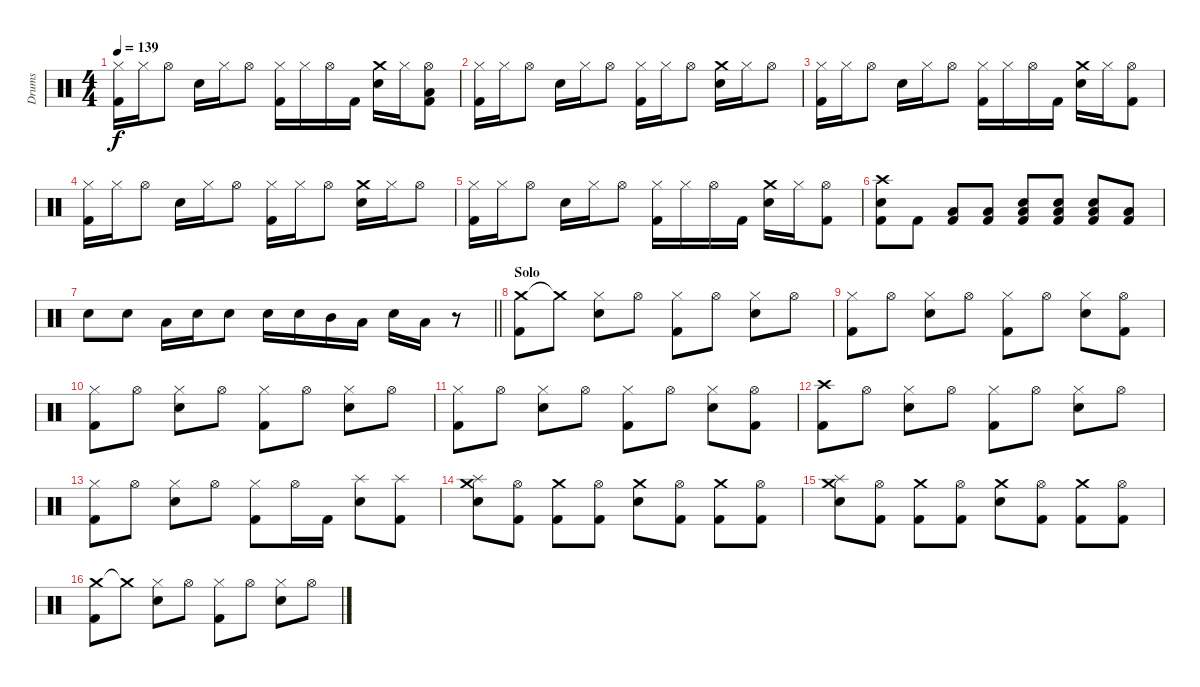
\track ("Drums" "Drums") {instrument percussion}
\staff {score}
\articulation defaults
\ts (4 4)
\tempo 139
\clef neutral
\ks c
("Hi-Hat (closed)" "Kick (hit) 2").16{dy f} "Hi-Hat (closed)".16 "Hi-Hat (open)".8 "Electric Snare (hit)".16 "Hi-Hat (closed)".16 "Hi-Hat (open)".8 ("Hi-Hat (closed)" "Kick (hit) 2").16 "Hi-Hat (closed)".16 "Hi-Hat (open)".16 "Kick (hit) 2".16 ("Crash medium (hit)" "Electric Snare (hit)").16 "Hi-Hat (closed)".16 ("Hi-Hat (open)" "Low Tom (hit)" "Kick (hit) 2").8 |
("Hi-Hat (closed)" "Kick (hit) 2").16 "Hi-Hat (closed)".16 "Hi-Hat (open)".8 "Electric Snare (hit)".16 "Hi-Hat (closed)".16 "Hi-Hat (open)".8 ("Hi-Hat (closed)" "Kick (hit) 2").16 "Hi-Hat (closed)".16 "Hi-Hat (open)".8 ("Crash medium (hit)" "Electric Snare (hit)").16 "Hi-Hat (closed)".16 "Hi-Hat (open)".8 |
("Hi-Hat (closed)" "Kick (hit) 2").16 "Hi-Hat (closed)".16 "Hi-Hat (open)".8 "Electric Snare (hit)".16 "Hi-Hat (closed)".16 "Hi-Hat (open)".8 ("Hi-Hat (closed)" "Kick (hit) 2").16 "Hi-Hat (closed)".16 "Hi-Hat (open)".16 "Kick (hit) 2".16 ("Crash medium (hit)" "Electric Snare (hit)").16 "Hi-Hat (closed)".16 ("Hi-Hat (open)" "Kick (hit) 2").8 |
("Hi-Hat (closed)" "Kick (hit) 2").16 "Hi-Hat (closed)".16 "Hi-Hat (open)".8 "Electric Snare (hit)".16 "Hi-Hat (closed)".16 "Hi-Hat (open)".8 ("Hi-Hat (closed)" "Kick (hit) 2").16 "Hi-Hat (closed)".16 "Hi-Hat (open)".8 ("Crash medium (hit)" "Electric Snare (hit)").16 "Hi-Hat (closed)".16 "Hi-Hat (open)".8 |
("Hi-Hat (closed)" "Kick (hit) 2").16 "Hi-Hat (closed)".16 "Hi-Hat (open)".8 "Electric Snare (hit)".16 "Hi-Hat (closed)".16 "Hi-Hat (open)".8 ("Hi-Hat (closed)" "Kick (hit) 2").16 "Hi-Hat (closed)".16 "Hi-Hat (open)".16 "Kick (hit) 2".16 ("Crash medium (hit)" "Electric Snare (hit)").16 "Hi-Hat (closed)".16 ("Hi-Hat (open)" "Kick (hit) 2").8 |
("Crash high (hit)" "Electric Snare (hit)" "Kick (hit) 2").8 "Kick (hit) 2".8 ("Low Tom (hit)" "Kick (hit) 2").8 ("Low Tom (hit)" "Kick (hit) 2").8 ("Electric Snare (hit)" "Low Tom (hit)" "Kick (hit) 2").8 ("Electric Snare (hit)" "Low Tom (hit)" "Kick (hit) 2").8 ("Electric Snare (hit)" "Low Tom (hit)" "Kick (hit) 2").8 ("Low Tom (hit)" "Kick (hit) 2").8 |
\barLineRight lightlight "Electric Snare (hit)".8 "Electric Snare (hit)".8 "Low Tom (hit)".16 "Electric Snare (hit)".16 "Electric Snare (hit)".8 "Electric Snare (hit)".16 "Electric Snare (hit)".16 "Mid Tom (hit)".16 "Low Tom (hit)".16 "Electric Snare (hit)".16 "Low Tom (hit)".16
r.8 |
\section ("" "Solo")
("Crash medium (hit)" "Kick (hit) 2").8 "Crash medium (hit)"{t}.8 ("Hi-Hat (closed)" "Electric Snare (hit)").8 "Hi-Hat (open)".8 ("Hi-Hat (closed)" "Kick (hit) 2").8 "Hi-Hat (open)".8 ("Hi-Hat (closed)" "Electric Snare (hit)").8 "Hi-Hat (open)".8 |
("Hi-Hat (closed)" "Kick (hit) 2").8 "Hi-Hat (open)".8 ("Hi-Hat (closed)" "Electric Snare (hit)").8 "Hi-Hat (open)".8 ("Hi-Hat (closed)" "Kick (hit) 2").8 "Hi-Hat (open)".8 ("Hi-Hat (closed)" "Electric Snare (hit)").8 ("Hi-Hat (open)" "Kick (hit) 2").8 |
("Hi-Hat (closed)" "Kick (hit) 2").8 "Hi-Hat (open)".8 ("Hi-Hat (closed)" "Electric Snare (hit)").8 "Hi-Hat (open)".8 ("Hi-Hat (closed)" "Kick (hit) 2").8 "Hi-Hat (open)".8 ("Hi-Hat (closed)" "Electric Snare (hit)").8 "Hi-Hat (open)".8 |
("Hi-Hat (closed)" "Kick (hit) 2").8 "Hi-Hat (open)".8 ("Hi-Hat (closed)" "Electric Snare (hit)").8 "Hi-Hat (open)".8 ("Hi-Hat (closed)" "Kick (hit) 2").8 "Hi-Hat (open)".8 ("Hi-Hat (closed)" "Electric Snare (hit)").8 ("Hi-Hat (open)" "Kick (hit) 2").8 |
("Crash high (hit)" "Kick (hit) 2").8 "Hi-Hat (open)".8 ("Hi-Hat (closed)" "Electric Snare (hit)").8 "Hi-Hat (open)".8 ("Hi-Hat (closed)" "Kick (hit) 2").8 "Hi-Hat (open)".8 ("Hi-Hat (closed)" "Electric Snare (hit)").8 "Hi-Hat (open)".8 |
("Hi-Hat (closed)" "Kick (hit) 2").8 "Hi-Hat (open)".8 ("Hi-Hat (closed)" "Electric Snare (hit)").8 "Hi-Hat (open)".8 ("Hi-Hat (closed)" "Kick (hit) 2").8 "Hi-Hat (open)".16 "Kick (hit) 2".16 ("Splash (hit)" "Electric Snare (hit)").8 ("Splash (hit)" "Kick (hit) 2").8 |
("Splash (hit)" "Crash medium (hit)" "Electric Snare (hit)").8 ("Hi-Hat (open)" "Kick (hit) 2").8 ("Crash medium (hit)" "Kick (hit) 2").8 ("Hi-Hat (open)" "Kick (hit) 2").8 ("Crash medium (hit)" "Electric Snare (hit)").8 ("Hi-Hat (open)" "Kick (hit) 2").8 ("Crash medium (hit)" "Kick (hit) 2").8 ("Hi-Hat (open)" "Kick (hit) 2").8 |
("Splash (hit)" "Crash medium (hit)" "Electric Snare (hit)").8 ("Hi-Hat (open)" "Kick (hit) 2").8 ("Crash medium (hit)" "Kick (hit) 2").8 ("Hi-Hat (open)" "Kick (hit) 2").8 ("Crash medium (hit)" "Electric Snare (hit)").8 ("Hi-Hat (open)" "Kick (hit) 2").8 ("Crash medium (hit)" "Kick (hit) 2").8 ("Hi-Hat (open)" "Kick (hit) 2").8 |
("Crash medium (hit)" "Kick (hit) 2").8 "Crash medium (hit)"{t}.8 ("Hi-Hat (closed)" "Electric Snare (hit)").8 "Hi-Hat (open)".8 ("Hi-Hat (closed)" "Kick (hit) 2").8 "Hi-Hat (open)".8 ("Hi-Hat (closed)" "Electric Snare (hit)").8 "Hi-Hat (open)".8
